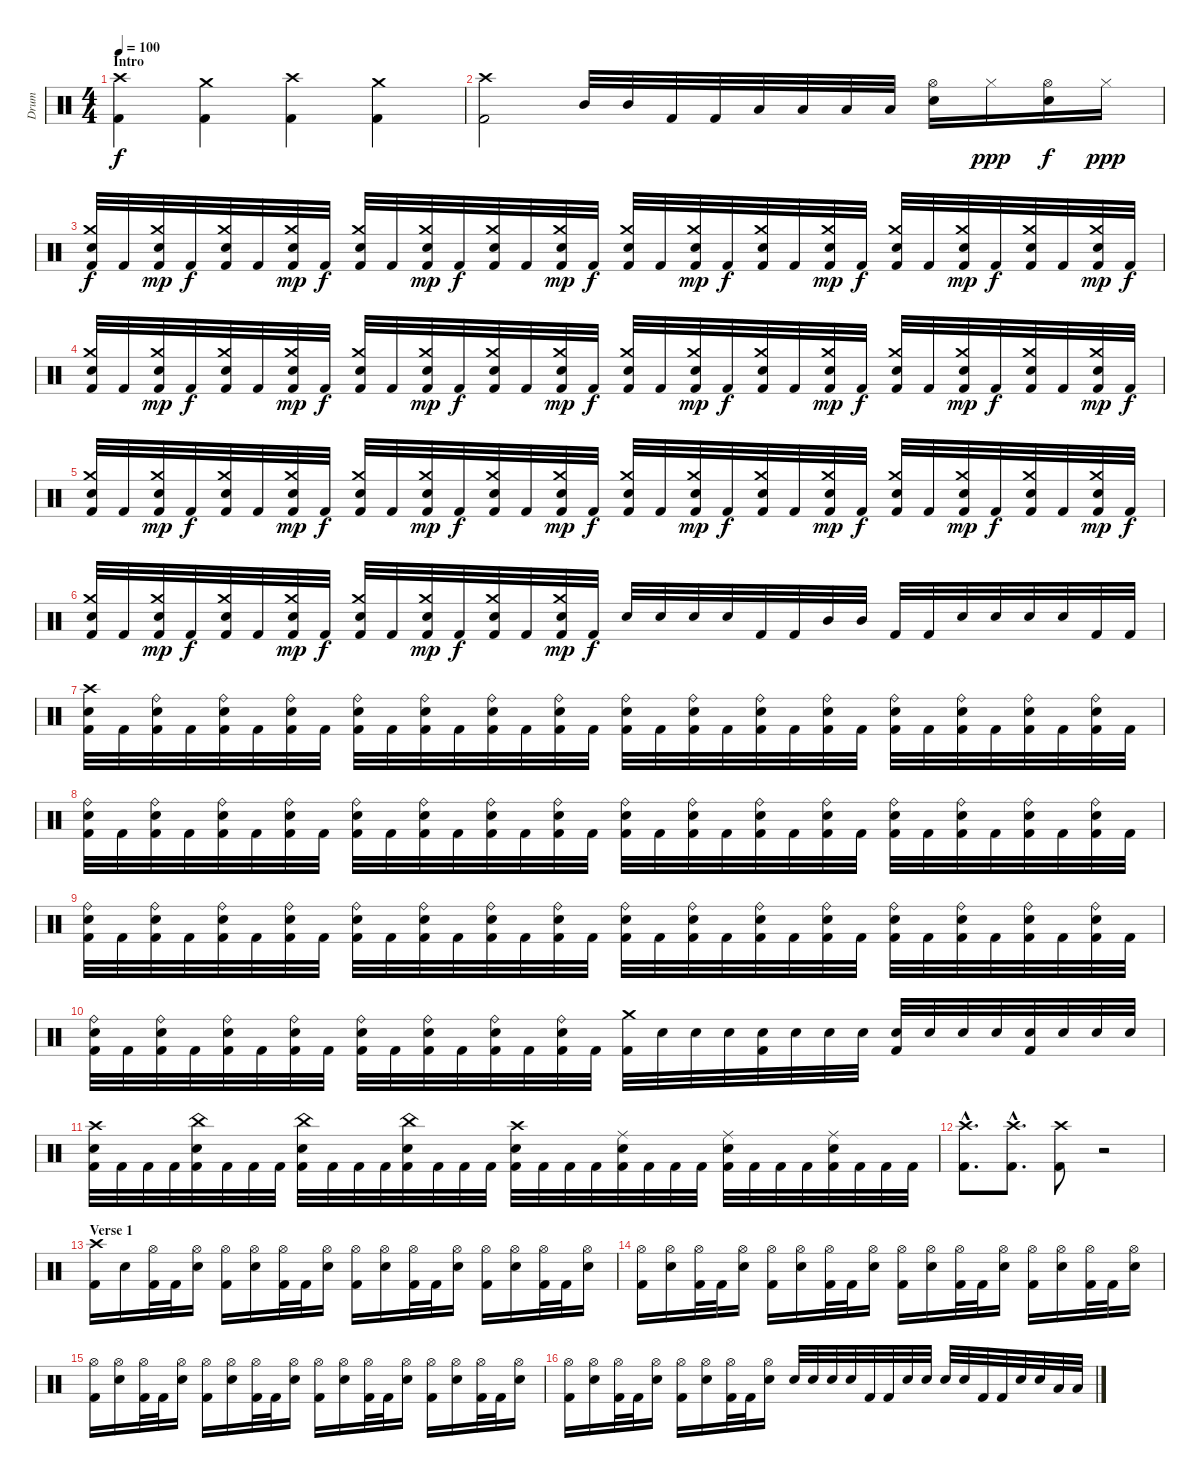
\track ("Drum" "Drum") {instrument percussion}
\staff {score}
\articulation defaults
\ts (4 4)
\section ("" "Intro")
\tempo 100
\clef neutral
\ks c
("Crash high (hit)" "Kick (hit) 2").4{dy f} ("Crash medium (hit)" "Kick (hit) 2").4 ("Crash high (hit)" "Kick (hit) 2").4 ("Crash medium (hit)" "Kick (hit) 2").4 |
("Crash high (hit)" "Kick (hit) 2").2 "Mid Tom (hit)".32 "Mid Tom (hit)".32 "Kick (hit) 2".32 "Kick (hit) 2".32 "Low Tom (hit)".32 "Low Tom (hit)".32 "Low Floor Tom (hit)".32 "Low Floor Tom (hit)".32 ("Hi-Hat (open)" "Snare (hit) 2").16 "Hi-Hat (closed)".16{dy ppp} ("Hi-Hat (open)" "Snare (hit) 2").16{dy f} "Hi-Hat (closed)".16{dy ppp} |
("Crash medium (hit)" "Snare (hit) 2" "Kick (hit) 2").32{dy f} "Kick (hit) 2".32 ("Crash medium (hit)" "Snare (hit) 2" "Kick (hit) 2").32{dy mp} "Kick (hit) 2".32{dy f} ("Crash medium (hit)" "Snare (hit) 2" "Kick (hit) 2").32 "Kick (hit) 2".32 ("Crash medium (hit)" "Snare (hit) 2" "Kick (hit) 2").32{dy mp} "Kick (hit) 2".32{dy f} ("Crash medium (hit)" "Snare (hit) 2" "Kick (hit) 2").32 "Kick (hit) 2".32 ("Crash medium (hit)" "Snare (hit) 2" "Kick (hit) 2").32{dy mp} "Kick (hit) 2".32{dy f} ("Crash medium (hit)" "Snare (hit) 2" "Kick (hit) 2").32 "Kick (hit) 2".32 ("Crash medium (hit)" "Snare (hit) 2" "Kick (hit) 2").32{dy mp} "Kick (hit) 2".32{dy f} ("Crash medium (hit)" "Snare (hit) 2" "Kick (hit) 2").32 "Kick (hit) 2".32 ("Crash medium (hit)" "Snare (hit) 2" "Kick (hit) 2").32{dy mp} "Kick (hit) 2".32{dy f} ("Crash medium (hit)" "Snare (hit) 2" "Kick (hit) 2").32 "Kick (hit) 2".32 ("Crash medium (hit)" "Snare (hit) 2" "Kick (hit) 2").32{dy mp} "Kick (hit) 2".32{dy f} ("Crash medium (hit)" "Snare (hit) 2" "Kick (hit) 2").32 "Kick (hit) 2".32 ("Crash medium (hit)" "Snare (hit) 2" "Kick (hit) 2").32{dy mp} "Kick (hit) 2".32{dy f} ("Crash medium (hit)" "Snare (hit) 2" "Kick (hit) 2").32 "Kick (hit) 2".32 ("Crash medium (hit)" "Snare (hit) 2" "Kick (hit) 2").32{dy mp} "Kick (hit) 2".32{dy f} |
("Crash medium (hit)" "Snare (hit) 2" "Kick (hit) 2").32 "Kick (hit) 2".32 ("Crash medium (hit)" "Snare (hit) 2" "Kick (hit) 2").32{dy mp} "Kick (hit) 2".32{dy f} ("Crash medium (hit)" "Snare (hit) 2" "Kick (hit) 2").32 "Kick (hit) 2".32 ("Crash medium (hit)" "Snare (hit) 2" "Kick (hit) 2").32{dy mp} "Kick (hit) 2".32{dy f} ("Crash medium (hit)" "Snare (hit) 2" "Kick (hit) 2").32 "Kick (hit) 2".32 ("Crash medium (hit)" "Snare (hit) 2" "Kick (hit) 2").32{dy mp} "Kick (hit) 2".32{dy f} ("Crash medium (hit)" "Snare (hit) 2" "Kick (hit) 2").32 "Kick (hit) 2".32 ("Crash medium (hit)" "Snare (hit) 2" "Kick (hit) 2").32{dy mp} "Kick (hit) 2".32{dy f} ("Crash medium (hit)" "Snare (hit) 2" "Kick (hit) 2").32 "Kick (hit) 2".32 ("Crash medium (hit)" "Snare (hit) 2" "Kick (hit) 2").32{dy mp} "Kick (hit) 2".32{dy f} ("Crash medium (hit)" "Snare (hit) 2" "Kick (hit) 2").32 "Kick (hit) 2".32 ("Crash medium (hit)" "Snare (hit) 2" "Kick (hit) 2").32{dy mp} "Kick (hit) 2".32{dy f} ("Crash medium (hit)" "Snare (hit) 2" "Kick (hit) 2").32 "Kick (hit) 2".32 ("Crash medium (hit)" "Snare (hit) 2" "Kick (hit) 2").32{dy mp} "Kick (hit) 2".32{dy f} ("Crash medium (hit)" "Snare (hit) 2" "Kick (hit) 2").32 "Kick (hit) 2".32 ("Crash medium (hit)" "Snare (hit) 2" "Kick (hit) 2").32{dy mp} "Kick (hit) 2".32{dy f} |
("Crash medium (hit)" "Snare (hit) 2" "Kick (hit) 2").32 "Kick (hit) 2".32 ("Crash medium (hit)" "Snare (hit) 2" "Kick (hit) 2").32{dy mp} "Kick (hit) 2".32{dy f} ("Crash medium (hit)" "Snare (hit) 2" "Kick (hit) 2").32 "Kick (hit) 2".32 ("Crash medium (hit)" "Snare (hit) 2" "Kick (hit) 2").32{dy mp} "Kick (hit) 2".32{dy f} ("Crash medium (hit)" "Snare (hit) 2" "Kick (hit) 2").32 "Kick (hit) 2".32 ("Crash medium (hit)" "Snare (hit) 2" "Kick (hit) 2").32{dy mp} "Kick (hit) 2".32{dy f} ("Crash medium (hit)" "Snare (hit) 2" "Kick (hit) 2").32 "Kick (hit) 2".32 ("Crash medium (hit)" "Snare (hit) 2" "Kick (hit) 2").32{dy mp} "Kick (hit) 2".32{dy f} ("Crash medium (hit)" "Snare (hit) 2" "Kick (hit) 2").32 "Kick (hit) 2".32 ("Crash medium (hit)" "Snare (hit) 2" "Kick (hit) 2").32{dy mp} "Kick (hit) 2".32{dy f} ("Crash medium (hit)" "Snare (hit) 2" "Kick (hit) 2").32 "Kick (hit) 2".32 ("Crash medium (hit)" "Snare (hit) 2" "Kick (hit) 2").32{dy mp} "Kick (hit) 2".32{dy f} ("Crash medium (hit)" "Snare (hit) 2" "Kick (hit) 2").32 "Kick (hit) 2".32 ("Crash medium (hit)" "Snare (hit) 2" "Kick (hit) 2").32{dy mp} "Kick (hit) 2".32{dy f} ("Crash medium (hit)" "Snare (hit) 2" "Kick (hit) 2").32 "Kick (hit) 2".32 ("Crash medium (hit)" "Snare (hit) 2" "Kick (hit) 2").32{dy mp} "Kick (hit) 2".32{dy f} |
("Crash medium (hit)" "Snare (hit) 2" "Kick (hit) 2").32 "Kick (hit) 2".32 ("Crash medium (hit)" "Snare (hit) 2" "Kick (hit) 2").32{dy mp} "Kick (hit) 2".32{dy f} ("Crash medium (hit)" "Snare (hit) 2" "Kick (hit) 2").32 "Kick (hit) 2".32 ("Crash medium (hit)" "Snare (hit) 2" "Kick (hit) 2").32{dy mp} "Kick (hit) 2".32{dy f} ("Crash medium (hit)" "Snare (hit) 2" "Kick (hit) 2").32 "Kick (hit) 2".32 ("Crash medium (hit)" "Snare (hit) 2" "Kick (hit) 2").32{dy mp} "Kick (hit) 2".32{dy f} ("Crash medium (hit)" "Snare (hit) 2" "Kick (hit) 2").32 "Kick (hit) 2".32 ("Crash medium (hit)" "Snare (hit) 2" "Kick (hit) 2").32{dy mp} "Kick (hit) 2".32{dy f} "Snare (hit) 2".32 "Snare (hit) 2".32 "Snare (hit) 2".32 "Snare (hit) 2".32 "Kick (hit) 2".32 "Kick (hit) 2".32 "Mid Tom (hit)".32 "Mid Tom (hit)".32 "Kick (hit) 2".32 "Kick (hit) 2".32 "Snare (hit) 2".32 "Snare (hit) 2".32 "Snare (hit) 2".32 "Snare (hit) 2".32 "Kick (hit) 2".32 "Kick (hit) 2".32 |
("Crash high (hit)" "Snare (hit) 2" "Kick (hit) 2").32 "Kick (hit) 2".32 ("Ride (bell)" "Snare (hit) 2" "Kick (hit) 2").32 "Kick (hit) 2".32 ("Ride (bell)" "Snare (hit) 2" "Kick (hit) 2").32 "Kick (hit) 2".32 ("Ride (bell)" "Snare (hit) 2" "Kick (hit) 2").32 "Kick (hit) 2".32 ("Ride (bell)" "Snare (hit) 2" "Kick (hit) 2").32 "Kick (hit) 2".32 ("Ride (bell)" "Snare (hit) 2" "Kick (hit) 2").32 "Kick (hit) 2".32 ("Ride (bell)" "Snare (hit) 2" "Kick (hit) 2").32 "Kick (hit) 2".32 ("Ride (bell)" "Snare (hit) 2" "Kick (hit) 2").32 "Kick (hit) 2".32 ("Ride (bell)" "Snare (hit) 2" "Kick (hit) 2").32 "Kick (hit) 2".32 ("Ride (bell)" "Snare (hit) 2" "Kick (hit) 2").32 "Kick (hit) 2".32 ("Ride (bell)" "Snare (hit) 2" "Kick (hit) 2").32 "Kick (hit) 2".32 ("Ride (bell)" "Snare (hit) 2" "Kick (hit) 2").32 "Kick (hit) 2".32 ("Ride (bell)" "Snare (hit) 2" "Kick (hit) 2").32 "Kick (hit) 2".32 ("Ride (bell)" "Snare (hit) 2" "Kick (hit) 2").32 "Kick (hit) 2".32 ("Ride (bell)" "Snare (hit) 2" "Kick (hit) 2").32 "Kick (hit) 2".32 ("Ride (bell)" "Snare (hit) 2" "Kick (hit) 2").32 "Kick (hit) 2".32 |
("Ride (bell)" "Snare (hit) 2" "Kick (hit) 2").32 "Kick (hit) 2".32 ("Ride (bell)" "Snare (hit) 2" "Kick (hit) 2").32 "Kick (hit) 2".32 ("Ride (bell)" "Snare (hit) 2" "Kick (hit) 2").32 "Kick (hit) 2".32 ("Ride (bell)" "Snare (hit) 2" "Kick (hit) 2").32 "Kick (hit) 2".32 ("Ride (bell)" "Snare (hit) 2" "Kick (hit) 2").32 "Kick (hit) 2".32 ("Ride (bell)" "Snare (hit) 2" "Kick (hit) 2").32 "Kick (hit) 2".32 ("Ride (bell)" "Snare (hit) 2" "Kick (hit) 2").32 "Kick (hit) 2".32 ("Ride (bell)" "Snare (hit) 2" "Kick (hit) 2").32 "Kick (hit) 2".32 ("Ride (bell)" "Snare (hit) 2" "Kick (hit) 2").32 "Kick (hit) 2".32 ("Ride (bell)" "Snare (hit) 2" "Kick (hit) 2").32 "Kick (hit) 2".32 ("Ride (bell)" "Snare (hit) 2" "Kick (hit) 2").32 "Kick (hit) 2".32 ("Ride (bell)" "Snare (hit) 2" "Kick (hit) 2").32 "Kick (hit) 2".32 ("Ride (bell)" "Snare (hit) 2" "Kick (hit) 2").32 "Kick (hit) 2".32 ("Ride (bell)" "Snare (hit) 2" "Kick (hit) 2").32 "Kick (hit) 2".32 ("Ride (bell)" "Snare (hit) 2" "Kick (hit) 2").32 "Kick (hit) 2".32 ("Ride (bell)" "Snare (hit) 2" "Kick (hit) 2").32 "Kick (hit) 2".32 |
("Ride (bell)" "Snare (hit) 2" "Kick (hit) 2").32 "Kick (hit) 2".32 ("Ride (bell)" "Snare (hit) 2" "Kick (hit) 2").32 "Kick (hit) 2".32 ("Ride (bell)" "Snare (hit) 2" "Kick (hit) 2").32 "Kick (hit) 2".32 ("Ride (bell)" "Snare (hit) 2" "Kick (hit) 2").32 "Kick (hit) 2".32 ("Ride (bell)" "Snare (hit) 2" "Kick (hit) 2").32 "Kick (hit) 2".32 ("Ride (bell)" "Snare (hit) 2" "Kick (hit) 2").32 "Kick (hit) 2".32 ("Ride (bell)" "Snare (hit) 2" "Kick (hit) 2").32 "Kick (hit) 2".32 ("Ride (bell)" "Snare (hit) 2" "Kick (hit) 2").32 "Kick (hit) 2".32 ("Ride (bell)" "Snare (hit) 2" "Kick (hit) 2").32 "Kick (hit) 2".32 ("Ride (bell)" "Snare (hit) 2" "Kick (hit) 2").32 "Kick (hit) 2".32 ("Ride (bell)" "Snare (hit) 2" "Kick (hit) 2").32 "Kick (hit) 2".32 ("Ride (bell)" "Snare (hit) 2" "Kick (hit) 2").32 "Kick (hit) 2".32 ("Ride (bell)" "Snare (hit) 2" "Kick (hit) 2").32 "Kick (hit) 2".32 ("Ride (bell)" "Snare (hit) 2" "Kick (hit) 2").32 "Kick (hit) 2".32 ("Ride (bell)" "Snare (hit) 2" "Kick (hit) 2").32 "Kick (hit) 2".32 ("Ride (bell)" "Snare (hit) 2" "Kick (hit) 2").32 "Kick (hit) 2".32 |
("Ride (bell)" "Snare (hit) 2" "Kick (hit) 2").32 "Kick (hit) 2".32 ("Ride (bell)" "Snare (hit) 2" "Kick (hit) 2").32 "Kick (hit) 2".32 ("Ride (bell)" "Snare (hit) 2" "Kick (hit) 2").32 "Kick (hit) 2".32 ("Ride (bell)" "Snare (hit) 2" "Kick (hit) 2").32 "Kick (hit) 2".32 ("Ride (bell)" "Snare (hit) 2" "Kick (hit) 2").32 "Kick (hit) 2".32 ("Ride (bell)" "Snare (hit) 2" "Kick (hit) 2").32 "Kick (hit) 2".32 ("Ride (bell)" "Snare (hit) 2" "Kick (hit) 2").32 "Kick (hit) 2".32 ("Ride (bell)" "Snare (hit) 2" "Kick (hit) 2").32 "Kick (hit) 2".32 ("Crash medium (hit)" "Kick (hit) 2").32 "Snare (hit) 2".32 "Snare (hit) 2".32 "Snare (hit) 2".32 ("Snare (hit) 2" "Kick (hit) 2").32 "Snare (hit) 2".32 "Snare (hit) 2".32 "Snare (hit) 2".32 ("Snare (hit) 2" "Kick (hit) 2").32 "Snare (hit) 2".32 "Snare (hit) 2".32 "Snare (hit) 2".32 ("Snare (hit) 2" "Kick (hit) 2").32 "Snare (hit) 2".32 "Snare (hit) 2".32 "Snare (hit) 2".32 |
("Crash high (hit)" "Snare (hit) 2" "Kick (hit) 2").32 "Kick (hit) 2".32 "Kick (hit) 2".32 "Kick (hit) 2".32 ("China (hit)" "Snare (hit) 2" "Kick (hit) 2").32 "Kick (hit) 2".32 "Kick (hit) 2".32 "Kick (hit) 2".32 ("China (hit)" "Snare (hit) 2" "Kick (hit) 2").32 "Kick (hit) 2".32 "Kick (hit) 2".32 "Kick (hit) 2".32 ("China (hit)" "Snare (hit) 2" "Kick (hit) 2").32 "Kick (hit) 2".32 "Kick (hit) 2".32 "Kick (hit) 2".32 ("Crash high (hit)" "Snare (hit) 2" "Kick (hit) 2").32 "Kick (hit) 2".32 "Kick (hit) 2".32 "Kick (hit) 2".32 ("Ride (middle)" "Snare (hit) 2" "Kick (hit) 2").32 "Kick (hit) 2".32 "Kick (hit) 2".32 "Kick (hit) 2".32 ("Ride (middle)" "Snare (hit) 2" "Kick (hit) 2").32 "Kick (hit) 2".32 "Kick (hit) 2".32 "Kick (hit) 2".32 ("Ride (middle)" "Snare (hit) 2" "Kick (hit) 2").32 "Kick (hit) 2".32 "Kick (hit) 2".32 "Kick (hit) 2".32 |
("Crash high (hit)"{hac} "Kick (hit) 2"{hac}).8{d} ("Crash high (hit)"{hac} "Kick (hit) 2"{hac}).8{d} ("Crash high (hit)" "Kick (hit) 2").8 r.2 |
\section ("" "Verse 1")
("Crash high (hit)" "Kick (hit) 2").16 "Snare (hit) 2".16 ("Hi-Hat (open)" "Kick (hit) 2").32 "Kick (hit) 2".32 ("Hi-Hat (open)" "Snare (hit) 2").16 ("Hi-Hat (open)" "Kick (hit) 2").16 ("Hi-Hat (open)" "Snare (hit) 2").16 ("Hi-Hat (open)" "Kick (hit) 2").32 "Kick (hit) 2".32 ("Hi-Hat (open)" "Snare (hit) 2").16 ("Hi-Hat (open)" "Kick (hit) 2").16 ("Hi-Hat (open)" "Snare (hit) 2").16 ("Hi-Hat (open)" "Kick (hit) 2").32 "Kick (hit) 2".32 ("Hi-Hat (open)" "Snare (hit) 2").16 ("Hi-Hat (open)" "Kick (hit) 2").16 ("Hi-Hat (open)" "Snare (hit) 2").16 ("Hi-Hat (open)" "Kick (hit) 2").32 "Kick (hit) 2".32 ("Hi-Hat (open)" "Snare (hit) 2").16 |
("Hi-Hat (open)" "Kick (hit) 2").16 ("Hi-Hat (open)" "Snare (hit) 2").16 ("Hi-Hat (open)" "Kick (hit) 2").32 "Kick (hit) 2".32 ("Hi-Hat (open)" "Snare (hit) 2").16 ("Hi-Hat (open)" "Kick (hit) 2").16 ("Hi-Hat (open)" "Snare (hit) 2").16 ("Hi-Hat (open)" "Kick (hit) 2").32 "Kick (hit) 2".32 ("Hi-Hat (open)" "Snare (hit) 2").16 ("Hi-Hat (open)" "Kick (hit) 2").16 ("Hi-Hat (open)" "Snare (hit) 2").16 ("Hi-Hat (open)" "Kick (hit) 2").32 "Kick (hit) 2".32 ("Hi-Hat (open)" "Snare (hit) 2").16 ("Hi-Hat (open)" "Kick (hit) 2").16 ("Hi-Hat (open)" "Snare (hit) 2").16 ("Hi-Hat (open)" "Kick (hit) 2").32 "Kick (hit) 2".32 ("Hi-Hat (open)" "Snare (hit) 2").16 |
("Hi-Hat (open)" "Kick (hit) 2").16 ("Hi-Hat (open)" "Snare (hit) 2").16 ("Hi-Hat (open)" "Kick (hit) 2").32 "Kick (hit) 2".32 ("Hi-Hat (open)" "Snare (hit) 2").16 ("Hi-Hat (open)" "Kick (hit) 2").16 ("Hi-Hat (open)" "Snare (hit) 2").16 ("Hi-Hat (open)" "Kick (hit) 2").32 "Kick (hit) 2".32 ("Hi-Hat (open)" "Snare (hit) 2").16 ("Hi-Hat (open)" "Kick (hit) 2").16 ("Hi-Hat (open)" "Snare (hit) 2").16 ("Hi-Hat (open)" "Kick (hit) 2").32 "Kick (hit) 2".32 ("Hi-Hat (open)" "Snare (hit) 2").16 ("Hi-Hat (open)" "Kick (hit) 2").16 ("Hi-Hat (open)" "Snare (hit) 2").16 ("Hi-Hat (open)" "Kick (hit) 2").32 "Kick (hit) 2".32 ("Hi-Hat (open)" "Snare (hit) 2").16 |
("Hi-Hat (open)" "Kick (hit) 2").16 ("Hi-Hat (open)" "Snare (hit) 2").16 ("Hi-Hat (open)" "Kick (hit) 2").32 "Kick (hit) 2".32 ("Hi-Hat (open)" "Snare (hit) 2").16 ("Hi-Hat (open)" "Kick (hit) 2").16 ("Hi-Hat (open)" "Snare (hit) 2").16 ("Hi-Hat (open)" "Kick (hit) 2").32 "Kick (hit) 2".32 ("Hi-Hat (open)" "Snare (hit) 2").16 "Snare (hit) 2".32 "Snare (hit) 2".32 "Snare (hit) 2".32 "Snare (hit) 2".32 "Kick (hit) 2".32 "Kick (hit) 2".32 "Snare (hit) 2".32 "Snare (hit) 2".32 "Snare (hit) 2".32 "Snare (hit) 2".32 "Kick (hit) 2".32 "Kick (hit) 2".32 "Snare (hit) 2".32 "Snare (hit) 2".32 "Low Floor Tom (hit)".32 "Low Floor Tom (hit)".32
